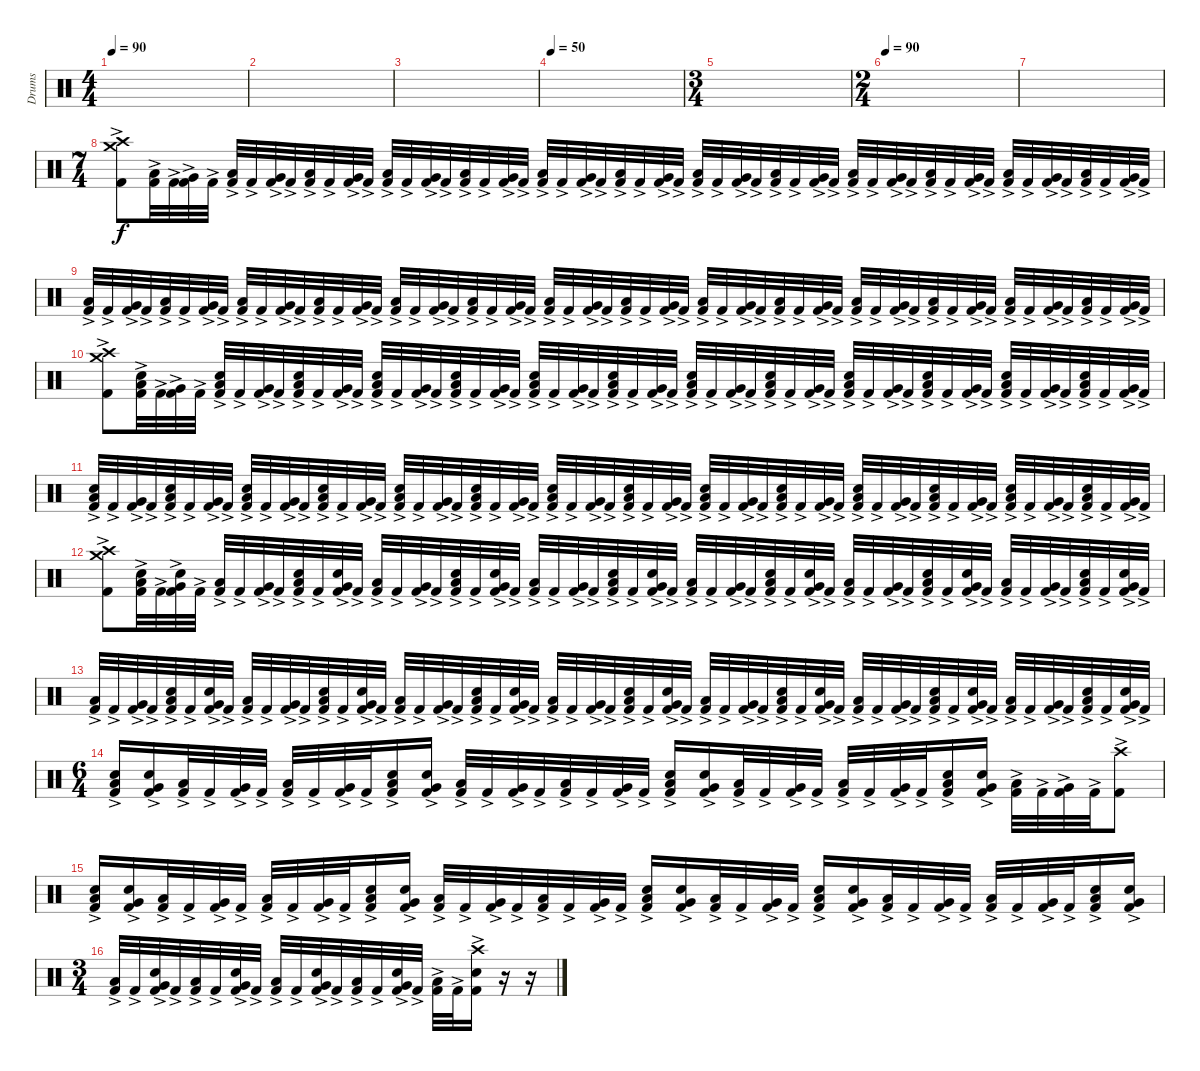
\track ("Drums" "Drums") {instrument percussion}
\staff {score}
\articulation defaults
\ts (4 4)
\tempo 90
\clef neutral
\ks c
|
|
|
\tempo 50
|
\ts (3 4)
|
\ts (2 4)
\tempo 90
|
|
\ts (7 4)
("Crash high (hit)"{ac} "Crash medium (hit)"{ac} "Kick (hit) 2"{ac}).8 ("Low Tom (hit)"{ac} "Kick (hit) 2"{ac}).32 "Kick (hit) 2"{ac}.32 ("Very Low Tom (hit)"{ac} "Kick (hit) 2"{ac}).32 "Kick (hit) 2"{ac}.32 ("Low Tom (hit)"{ac} "Kick (hit) 2"{ac}).32 "Kick (hit) 2"{ac}.32 ("Very Low Tom (hit)"{ac} "Kick (hit) 2"{ac}).32 "Kick (hit) 2"{ac}.32 ("Low Tom (hit)"{ac} "Kick (hit) 2"{ac}).32 "Kick (hit) 2"{ac}.32 ("Very Low Tom (hit)"{ac} "Kick (hit) 2"{ac}).32 "Kick (hit) 2"{ac}.32 ("Low Tom (hit)"{ac} "Kick (hit) 2"{ac}).32 "Kick (hit) 2"{ac}.32 ("Very Low Tom (hit)"{ac} "Kick (hit) 2"{ac}).32 "Kick (hit) 2"{ac}.32 ("Low Tom (hit)"{ac} "Kick (hit) 2"{ac}).32 "Kick (hit) 2"{ac}.32 ("Very Low Tom (hit)"{ac} "Kick (hit) 2"{ac}).32 "Kick (hit) 2"{ac}.32 ("Low Tom (hit)"{ac} "Kick (hit) 2"{ac}).32 "Kick (hit) 2"{ac}.32 ("Very Low Tom (hit)"{ac} "Kick (hit) 2"{ac}).32 "Kick (hit) 2"{ac}.32 ("Low Tom (hit)"{ac} "Kick (hit) 2"{ac}).32 "Kick (hit) 2"{ac}.32 ("Very Low Tom (hit)"{ac} "Kick (hit) 2"{ac}).32 "Kick (hit) 2"{ac}.32 ("Low Tom (hit)"{ac} "Kick (hit) 2"{ac}).32 "Kick (hit) 2"{ac}.32 ("Very Low Tom (hit)"{ac} "Kick (hit) 2"{ac}).32 "Kick (hit) 2"{ac}.32 ("Low Tom (hit)"{ac} "Kick (hit) 2"{ac}).32 "Kick (hit) 2"{ac}.32 ("Very Low Tom (hit)"{ac} "Kick (hit) 2"{ac}).32 "Kick (hit) 2"{ac}.32 ("Low Tom (hit)"{ac} "Kick (hit) 2"{ac}).32 "Kick (hit) 2"{ac}.32 ("Very Low Tom (hit)"{ac} "Kick (hit) 2"{ac}).32 "Kick (hit) 2"{ac}.32 ("Low Tom (hit)"{ac} "Kick (hit) 2"{ac}).32 "Kick (hit) 2"{ac}.32 ("Very Low Tom (hit)"{ac} "Kick (hit) 2"{ac}).32 "Kick (hit) 2"{ac}.32 ("Low Tom (hit)"{ac} "Kick (hit) 2"{ac}).32 "Kick (hit) 2"{ac}.32 ("Very Low Tom (hit)"{ac} "Kick (hit) 2"{ac}).32 "Kick (hit) 2"{ac}.32 ("Low Tom (hit)"{ac} "Kick (hit) 2"{ac}).32 "Kick (hit) 2"{ac}.32 ("Very Low Tom (hit)"{ac} "Kick (hit) 2"{ac}).32 "Kick (hit) 2"{ac}.32 |
("Low Tom (hit)"{ac} "Kick (hit) 2"{ac}).32 "Kick (hit) 2"{ac}.32 ("Very Low Tom (hit)"{ac} "Kick (hit) 2"{ac}).32 "Kick (hit) 2"{ac}.32 ("Low Tom (hit)"{ac} "Kick (hit) 2"{ac}).32 "Kick (hit) 2"{ac}.32 ("Very Low Tom (hit)"{ac} "Kick (hit) 2"{ac}).32 "Kick (hit) 2"{ac}.32 ("Low Tom (hit)"{ac} "Kick (hit) 2"{ac}).32 "Kick (hit) 2"{ac}.32 ("Very Low Tom (hit)"{ac} "Kick (hit) 2"{ac}).32 "Kick (hit) 2"{ac}.32 ("Low Tom (hit)"{ac} "Kick (hit) 2"{ac}).32 "Kick (hit) 2"{ac}.32 ("Very Low Tom (hit)"{ac} "Kick (hit) 2"{ac}).32 "Kick (hit) 2"{ac}.32 ("Low Tom (hit)"{ac} "Kick (hit) 2"{ac}).32 "Kick (hit) 2"{ac}.32 ("Very Low Tom (hit)"{ac} "Kick (hit) 2"{ac}).32 "Kick (hit) 2"{ac}.32 ("Low Tom (hit)"{ac} "Kick (hit) 2"{ac}).32 "Kick (hit) 2"{ac}.32 ("Very Low Tom (hit)"{ac} "Kick (hit) 2"{ac}).32 "Kick (hit) 2"{ac}.32 ("Low Tom (hit)"{ac} "Kick (hit) 2"{ac}).32 "Kick (hit) 2"{ac}.32 ("Very Low Tom (hit)"{ac} "Kick (hit) 2"{ac}).32 "Kick (hit) 2"{ac}.32 ("Low Tom (hit)"{ac} "Kick (hit) 2"{ac}).32 "Kick (hit) 2"{ac}.32 ("Very Low Tom (hit)"{ac} "Kick (hit) 2"{ac}).32 "Kick (hit) 2"{ac}.32 ("Low Tom (hit)"{ac} "Kick (hit) 2"{ac}).32 "Kick (hit) 2"{ac}.32 ("Very Low Tom (hit)"{ac} "Kick (hit) 2"{ac}).32 "Kick (hit) 2"{ac}.32 ("Low Tom (hit)"{ac} "Kick (hit) 2"{ac}).32 "Kick (hit) 2"{ac}.32 ("Very Low Tom (hit)"{ac} "Kick (hit) 2"{ac}).32 "Kick (hit) 2"{ac}.32 ("Low Tom (hit)"{ac} "Kick (hit) 2"{ac}).32 "Kick (hit) 2"{ac}.32 ("Very Low Tom (hit)"{ac} "Kick (hit) 2"{ac}).32 "Kick (hit) 2"{ac}.32 ("Low Tom (hit)"{ac} "Kick (hit) 2"{ac}).32 "Kick (hit) 2"{ac}.32 ("Very Low Tom (hit)"{ac} "Kick (hit) 2"{ac}).32 "Kick (hit) 2"{ac}.32 ("Low Tom (hit)"{ac} "Kick (hit) 2"{ac}).32 "Kick (hit) 2"{ac}.32 ("Very Low Tom (hit)"{ac} "Kick (hit) 2"{ac}).32 "Kick (hit) 2"{ac}.32 ("Low Tom (hit)"{ac} "Kick (hit) 2"{ac}).32 "Kick (hit) 2"{ac}.32 ("Very Low Tom (hit)"{ac} "Kick (hit) 2"{ac}).32 "Kick (hit) 2"{ac}.32 |
("Crash high (hit)"{ac} "Crash medium (hit)"{ac} "Kick (hit) 2"{ac}).8 ("Low Tom (hit)"{ac} "Snare (hit) 2"{ac} "Kick (hit) 2"{ac}).32 "Kick (hit) 2"{ac}.32 ("Very Low Tom (hit)"{ac} "Kick (hit) 2"{ac}).32 "Kick (hit) 2"{ac}.32 ("Low Tom (hit)"{ac} "Snare (hit) 2"{ac} "Kick (hit) 2"{ac}).32 "Kick (hit) 2"{ac}.32 ("Very Low Tom (hit)"{ac} "Kick (hit) 2"{ac}).32 "Kick (hit) 2"{ac}.32 ("Low Tom (hit)"{ac} "Snare (hit) 2"{ac} "Kick (hit) 2"{ac}).32 "Kick (hit) 2"{ac}.32 ("Very Low Tom (hit)"{ac} "Kick (hit) 2"{ac}).32 "Kick (hit) 2"{ac}.32 ("Low Tom (hit)"{ac} "Snare (hit) 2"{ac} "Kick (hit) 2"{ac}).32 "Kick (hit) 2"{ac}.32 ("Very Low Tom (hit)"{ac} "Kick (hit) 2"{ac}).32 "Kick (hit) 2"{ac}.32 ("Low Tom (hit)"{ac} "Snare (hit) 2"{ac} "Kick (hit) 2"{ac}).32 "Kick (hit) 2"{ac}.32 ("Very Low Tom (hit)"{ac} "Kick (hit) 2"{ac}).32 "Kick (hit) 2"{ac}.32 ("Low Tom (hit)"{ac} "Snare (hit) 2"{ac} "Kick (hit) 2"{ac}).32 "Kick (hit) 2"{ac}.32 ("Very Low Tom (hit)"{ac} "Kick (hit) 2"{ac}).32 "Kick (hit) 2"{ac}.32 ("Low Tom (hit)"{ac} "Snare (hit) 2"{ac} "Kick (hit) 2"{ac}).32 "Kick (hit) 2"{ac}.32 ("Very Low Tom (hit)"{ac} "Kick (hit) 2"{ac}).32 "Kick (hit) 2"{ac}.32 ("Low Tom (hit)"{ac} "Snare (hit) 2"{ac} "Kick (hit) 2"{ac}).32 "Kick (hit) 2"{ac}.32 ("Very Low Tom (hit)"{ac} "Kick (hit) 2"{ac}).32 "Kick (hit) 2"{ac}.32 ("Low Tom (hit)"{ac} "Snare (hit) 2"{ac} "Kick (hit) 2"{ac}).32 "Kick (hit) 2"{ac}.32 ("Very Low Tom (hit)"{ac} "Kick (hit) 2"{ac}).32 "Kick (hit) 2"{ac}.32 ("Low Tom (hit)"{ac} "Snare (hit) 2"{ac} "Kick (hit) 2"{ac}).32 "Kick (hit) 2"{ac}.32 ("Very Low Tom (hit)"{ac} "Kick (hit) 2"{ac}).32 "Kick (hit) 2"{ac}.32 ("Low Tom (hit)"{ac} "Snare (hit) 2"{ac} "Kick (hit) 2"{ac}).32 "Kick (hit) 2"{ac}.32 ("Very Low Tom (hit)"{ac} "Kick (hit) 2"{ac}).32 "Kick (hit) 2"{ac}.32 ("Low Tom (hit)"{ac} "Snare (hit) 2"{ac} "Kick (hit) 2"{ac}).32 "Kick (hit) 2"{ac}.32 ("Very Low Tom (hit)"{ac} "Kick (hit) 2"{ac}).32 "Kick (hit) 2"{ac}.32 ("Low Tom (hit)"{ac} "Snare (hit) 2"{ac} "Kick (hit) 2"{ac}).32 "Kick (hit) 2"{ac}.32 ("Very Low Tom (hit)"{ac} "Kick (hit) 2"{ac}).32 "Kick (hit) 2"{ac}.32 |
("Low Tom (hit)"{ac} "Snare (hit) 2"{ac} "Kick (hit) 2"{ac}).32 "Kick (hit) 2"{ac}.32 ("Very Low Tom (hit)"{ac} "Kick (hit) 2"{ac}).32 "Kick (hit) 2"{ac}.32 ("Low Tom (hit)"{ac} "Snare (hit) 2"{ac} "Kick (hit) 2"{ac}).32 "Kick (hit) 2"{ac}.32 ("Very Low Tom (hit)"{ac} "Kick (hit) 2"{ac}).32 "Kick (hit) 2"{ac}.32 ("Low Tom (hit)"{ac} "Snare (hit) 2"{ac} "Kick (hit) 2"{ac}).32 "Kick (hit) 2"{ac}.32 ("Very Low Tom (hit)"{ac} "Kick (hit) 2"{ac}).32 "Kick (hit) 2"{ac}.32 ("Low Tom (hit)"{ac} "Snare (hit) 2"{ac} "Kick (hit) 2"{ac}).32 "Kick (hit) 2"{ac}.32 ("Very Low Tom (hit)"{ac} "Kick (hit) 2"{ac}).32 "Kick (hit) 2"{ac}.32 ("Low Tom (hit)"{ac} "Snare (hit) 2"{ac} "Kick (hit) 2"{ac}).32 "Kick (hit) 2"{ac}.32 ("Very Low Tom (hit)"{ac} "Kick (hit) 2"{ac}).32 "Kick (hit) 2"{ac}.32 ("Low Tom (hit)"{ac} "Snare (hit) 2"{ac} "Kick (hit) 2"{ac}).32 "Kick (hit) 2"{ac}.32 ("Very Low Tom (hit)"{ac} "Kick (hit) 2"{ac}).32 "Kick (hit) 2"{ac}.32 ("Low Tom (hit)"{ac} "Snare (hit) 2"{ac} "Kick (hit) 2"{ac}).32 "Kick (hit) 2"{ac}.32 ("Very Low Tom (hit)"{ac} "Kick (hit) 2"{ac}).32 "Kick (hit) 2"{ac}.32 ("Low Tom (hit)"{ac} "Snare (hit) 2"{ac} "Kick (hit) 2"{ac}).32 "Kick (hit) 2"{ac}.32 ("Very Low Tom (hit)"{ac} "Kick (hit) 2"{ac}).32 "Kick (hit) 2"{ac}.32 ("Low Tom (hit)"{ac} "Snare (hit) 2"{ac} "Kick (hit) 2"{ac}).32 "Kick (hit) 2"{ac}.32 ("Very Low Tom (hit)"{ac} "Kick (hit) 2"{ac}).32 "Kick (hit) 2"{ac}.32 ("Low Tom (hit)"{ac} "Snare (hit) 2"{ac} "Kick (hit) 2"{ac}).32 "Kick (hit) 2"{ac}.32 ("Very Low Tom (hit)"{ac} "Kick (hit) 2"{ac}).32 "Kick (hit) 2"{ac}.32 ("Low Tom (hit)"{ac} "Snare (hit) 2"{ac} "Kick (hit) 2"{ac}).32 "Kick (hit) 2"{ac}.32 ("Very Low Tom (hit)"{ac} "Kick (hit) 2"{ac}).32 "Kick (hit) 2"{ac}.32 ("Low Tom (hit)"{ac} "Snare (hit) 2"{ac} "Kick (hit) 2"{ac}).32 "Kick (hit) 2"{ac}.32 ("Very Low Tom (hit)"{ac} "Kick (hit) 2"{ac}).32 "Kick (hit) 2"{ac}.32 ("Low Tom (hit)"{ac} "Snare (hit) 2"{ac} "Kick (hit) 2"{ac}).32 "Kick (hit) 2"{ac}.32 ("Very Low Tom (hit)"{ac} "Kick (hit) 2"{ac}).32 "Kick (hit) 2"{ac}.32 ("Low Tom (hit)"{ac} "Snare (hit) 2"{ac} "Kick (hit) 2"{ac}).32 "Kick (hit) 2"{ac}.32 ("Very Low Tom (hit)"{ac} "Kick (hit) 2"{ac}).32 "Kick (hit) 2"{ac}.32 |
("Crash high (hit)"{ac} "Crash medium (hit)"{ac} "Kick (hit) 2"{ac}).8 ("Low Tom (hit)"{ac} "Snare (hit) 2"{ac} "Kick (hit) 2"{ac}).32 "Kick (hit) 2"{ac}.32 ("Very Low Tom (hit)"{ac} "Snare (hit) 2"{ac} "Kick (hit) 2"{ac}).32 "Kick (hit) 2"{ac}.32 ("Low Tom (hit)"{ac} "Kick (hit) 2"{ac}).32 "Kick (hit) 2"{ac}.32 ("Very Low Tom (hit)"{ac} "Kick (hit) 2"{ac}).32 "Kick (hit) 2"{ac}.32 ("Low Tom (hit)"{ac} "Snare (hit) 2"{ac} "Kick (hit) 2"{ac}).32 "Kick (hit) 2"{ac}.32 ("Very Low Tom (hit)"{ac} "Snare (hit) 2"{ac} "Kick (hit) 2"{ac}).32 "Kick (hit) 2"{ac}.32 ("Low Tom (hit)"{ac} "Kick (hit) 2"{ac}).32 "Kick (hit) 2"{ac}.32 ("Very Low Tom (hit)"{ac} "Kick (hit) 2"{ac}).32 "Kick (hit) 2"{ac}.32 ("Low Tom (hit)"{ac} "Snare (hit) 2"{ac} "Kick (hit) 2"{ac}).32 "Kick (hit) 2"{ac}.32 ("Very Low Tom (hit)"{ac} "Snare (hit) 2"{ac} "Kick (hit) 2"{ac}).32 "Kick (hit) 2"{ac}.32 ("Low Tom (hit)"{ac} "Kick (hit) 2"{ac}).32 "Kick (hit) 2"{ac}.32 ("Very Low Tom (hit)"{ac} "Kick (hit) 2"{ac}).32 "Kick (hit) 2"{ac}.32 ("Low Tom (hit)"{ac} "Snare (hit) 2"{ac} "Kick (hit) 2"{ac}).32 "Kick (hit) 2"{ac}.32 ("Very Low Tom (hit)"{ac} "Snare (hit) 2"{ac} "Kick (hit) 2"{ac}).32 "Kick (hit) 2"{ac}.32 ("Low Tom (hit)"{ac} "Kick (hit) 2"{ac}).32 "Kick (hit) 2"{ac}.32 ("Very Low Tom (hit)"{ac} "Kick (hit) 2"{ac}).32 "Kick (hit) 2"{ac}.32 ("Low Tom (hit)"{ac} "Snare (hit) 2"{ac} "Kick (hit) 2"{ac}).32 "Kick (hit) 2"{ac}.32 ("Very Low Tom (hit)"{ac} "Snare (hit) 2"{ac} "Kick (hit) 2"{ac}).32 "Kick (hit) 2"{ac}.32 ("Low Tom (hit)"{ac} "Kick (hit) 2"{ac}).32 "Kick (hit) 2"{ac}.32 ("Very Low Tom (hit)"{ac} "Kick (hit) 2"{ac}).32 "Kick (hit) 2"{ac}.32 ("Low Tom (hit)"{ac} "Snare (hit) 2"{ac} "Kick (hit) 2"{ac}).32 "Kick (hit) 2"{ac}.32 ("Very Low Tom (hit)"{ac} "Snare (hit) 2"{ac} "Kick (hit) 2"{ac}).32 "Kick (hit) 2"{ac}.32 ("Low Tom (hit)"{ac} "Kick (hit) 2"{ac}).32 "Kick (hit) 2"{ac}.32 ("Very Low Tom (hit)"{ac} "Kick (hit) 2"{ac}).32 "Kick (hit) 2"{ac}.32 ("Low Tom (hit)"{ac} "Snare (hit) 2"{ac} "Kick (hit) 2"{ac}).32 "Kick (hit) 2"{ac}.32 ("Very Low Tom (hit)"{ac} "Snare (hit) 2"{ac} "Kick (hit) 2"{ac}).32 "Kick (hit) 2"{ac}.32 |
("Low Tom (hit)"{ac} "Kick (hit) 2"{ac}).32 "Kick (hit) 2"{ac}.32 ("Very Low Tom (hit)"{ac} "Kick (hit) 2"{ac}).32 "Kick (hit) 2"{ac}.32 ("Low Tom (hit)"{ac} "Snare (hit) 2"{ac} "Kick (hit) 2"{ac}).32 "Kick (hit) 2"{ac}.32 ("Very Low Tom (hit)"{ac} "Snare (hit) 2"{ac} "Kick (hit) 2"{ac}).32 "Kick (hit) 2"{ac}.32 ("Low Tom (hit)"{ac} "Kick (hit) 2"{ac}).32 "Kick (hit) 2"{ac}.32 ("Very Low Tom (hit)"{ac} "Kick (hit) 2"{ac}).32 "Kick (hit) 2"{ac}.32 ("Low Tom (hit)"{ac} "Snare (hit) 2"{ac} "Kick (hit) 2"{ac}).32 "Kick (hit) 2"{ac}.32 ("Very Low Tom (hit)"{ac} "Snare (hit) 2"{ac} "Kick (hit) 2"{ac}).32 "Kick (hit) 2"{ac}.32 ("Low Tom (hit)"{ac} "Kick (hit) 2"{ac}).32 "Kick (hit) 2"{ac}.32 ("Very Low Tom (hit)"{ac} "Kick (hit) 2"{ac}).32 "Kick (hit) 2"{ac}.32 ("Low Tom (hit)"{ac} "Snare (hit) 2"{ac} "Kick (hit) 2"{ac}).32 "Kick (hit) 2"{ac}.32 ("Very Low Tom (hit)"{ac} "Snare (hit) 2"{ac} "Kick (hit) 2"{ac}).32 "Kick (hit) 2"{ac}.32 ("Low Tom (hit)"{ac} "Kick (hit) 2"{ac}).32 "Kick (hit) 2"{ac}.32 ("Very Low Tom (hit)"{ac} "Kick (hit) 2"{ac}).32 "Kick (hit) 2"{ac}.32 ("Low Tom (hit)"{ac} "Snare (hit) 2"{ac} "Kick (hit) 2"{ac}).32 "Kick (hit) 2"{ac}.32 ("Very Low Tom (hit)"{ac} "Snare (hit) 2"{ac} "Kick (hit) 2"{ac}).32 "Kick (hit) 2"{ac}.32 ("Low Tom (hit)"{ac} "Kick (hit) 2"{ac}).32 "Kick (hit) 2"{ac}.32 ("Very Low Tom (hit)"{ac} "Kick (hit) 2"{ac}).32 "Kick (hit) 2"{ac}.32 ("Low Tom (hit)"{ac} "Snare (hit) 2"{ac} "Kick (hit) 2"{ac}).32 "Kick (hit) 2"{ac}.32 ("Very Low Tom (hit)"{ac} "Snare (hit) 2"{ac} "Kick (hit) 2"{ac}).32 "Kick (hit) 2"{ac}.32 ("Low Tom (hit)"{ac} "Kick (hit) 2"{ac}).32 "Kick (hit) 2"{ac}.32 ("Very Low Tom (hit)"{ac} "Kick (hit) 2"{ac}).32 "Kick (hit) 2"{ac}.32 ("Low Tom (hit)"{ac} "Snare (hit) 2"{ac} "Kick (hit) 2"{ac}).32 "Kick (hit) 2"{ac}.32 ("Very Low Tom (hit)"{ac} "Snare (hit) 2"{ac} "Kick (hit) 2"{ac}).32 "Kick (hit) 2"{ac}.32 ("Low Tom (hit)"{ac} "Kick (hit) 2"{ac}).32 "Kick (hit) 2"{ac}.32 ("Very Low Tom (hit)"{ac} "Kick (hit) 2"{ac}).32 "Kick (hit) 2"{ac}.32 ("Low Tom (hit)"{ac} "Snare (hit) 2"{ac} "Kick (hit) 2"{ac}).32 "Kick (hit) 2"{ac}.32 ("Very Low Tom (hit)"{ac} "Snare (hit) 2"{ac} "Kick (hit) 2"{ac}).32 "Kick (hit) 2"{ac}.32 |
\ts (6 4)
("Low Tom (hit)"{ac} "Snare (hit) 2"{ac} "Kick (hit) 2"{ac}).16 ("Very Low Tom (hit)"{ac} "Snare (hit) 2"{ac} "Kick (hit) 2"{ac}).16 ("Low Tom (hit)"{ac} "Kick (hit) 2"{ac}).32 "Kick (hit) 2"{ac}.32 ("Very Low Tom (hit)"{ac} "Kick (hit) 2"{ac}).32 "Kick (hit) 2"{ac}.32 ("Low Tom (hit)"{ac} "Kick (hit) 2"{ac}).32 "Kick (hit) 2"{ac}.32 ("Very Low Tom (hit)"{ac} "Kick (hit) 2"{ac}).32 "Kick (hit) 2"{ac}.32 ("Low Tom (hit)"{ac} "Snare (hit) 2"{ac} "Kick (hit) 2"{ac}).16 ("Very Low Tom (hit)"{ac} "Snare (hit) 2"{ac} "Kick (hit) 2"{ac}).16 ("Low Tom (hit)"{ac} "Kick (hit) 2"{ac}).32 "Kick (hit) 2"{ac}.32 ("Very Low Tom (hit)"{ac} "Kick (hit) 2"{ac}).32 "Kick (hit) 2"{ac}.32 ("Low Tom (hit)"{ac} "Kick (hit) 2"{ac}).32 "Kick (hit) 2"{ac}.32 ("Very Low Tom (hit)"{ac} "Kick (hit) 2"{ac}).32 "Kick (hit) 2"{ac}.32 ("Low Tom (hit)"{ac} "Snare (hit) 2"{ac} "Kick (hit) 2"{ac}).16 ("Very Low Tom (hit)"{ac} "Snare (hit) 2"{ac} "Kick (hit) 2"{ac}).16 ("Low Tom (hit)"{ac} "Kick (hit) 2"{ac}).32 "Kick (hit) 2"{ac}.32 ("Very Low Tom (hit)"{ac} "Kick (hit) 2"{ac}).32 "Kick (hit) 2"{ac}.32 ("Low Tom (hit)"{ac} "Kick (hit) 2"{ac}).32 "Kick (hit) 2"{ac}.32 ("Very Low Tom (hit)"{ac} "Kick (hit) 2"{ac}).32 "Kick (hit) 2"{ac}.32 ("Low Tom (hit)"{ac} "Snare (hit) 2"{ac} "Kick (hit) 2"{ac}).16 ("Very Low Tom (hit)"{ac} "Snare (hit) 2"{ac} "Kick (hit) 2"{ac}).16 ("Low Tom (hit)"{ac} "Kick (hit) 2"{ac}).32 "Kick (hit) 2"{ac}.32 ("Very Low Tom (hit)"{ac} "Kick (hit) 2"{ac}).32 "Kick (hit) 2"{ac}.32 ("Crash high (hit)"{ac} "Kick (hit) 2"{ac}).8 |
("Low Tom (hit)"{ac} "Snare (hit) 2"{ac} "Kick (hit) 2"{ac}).16 ("Very Low Tom (hit)"{ac} "Snare (hit) 2"{ac} "Kick (hit) 2"{ac}).16 ("Low Tom (hit)"{ac} "Kick (hit) 2"{ac}).32 "Kick (hit) 2"{ac}.32 ("Very Low Tom (hit)"{ac} "Kick (hit) 2"{ac}).32 "Kick (hit) 2"{ac}.32 ("Low Tom (hit)"{ac} "Kick (hit) 2"{ac}).32 "Kick (hit) 2"{ac}.32 ("Very Low Tom (hit)"{ac} "Kick (hit) 2"{ac}).32 "Kick (hit) 2"{ac}.32 ("Low Tom (hit)"{ac} "Snare (hit) 2"{ac} "Kick (hit) 2"{ac}).16 ("Very Low Tom (hit)"{ac} "Snare (hit) 2"{ac} "Kick (hit) 2"{ac}).16 ("Low Tom (hit)"{ac} "Kick (hit) 2"{ac}).32 "Kick (hit) 2"{ac}.32 ("Very Low Tom (hit)"{ac} "Kick (hit) 2"{ac}).32 "Kick (hit) 2"{ac}.32 ("Low Tom (hit)"{ac} "Kick (hit) 2"{ac}).32 "Kick (hit) 2"{ac}.32 ("Very Low Tom (hit)"{ac} "Kick (hit) 2"{ac}).32 "Kick (hit) 2"{ac}.32 ("Low Tom (hit)"{ac} "Snare (hit) 2"{ac} "Kick (hit) 2"{ac}).16 ("Very Low Tom (hit)"{ac} "Snare (hit) 2"{ac} "Kick (hit) 2"{ac}).16 ("Low Tom (hit)"{ac} "Kick (hit) 2"{ac}).32 "Kick (hit) 2"{ac}.32 ("Very Low Tom (hit)"{ac} "Kick (hit) 2"{ac}).32 "Kick (hit) 2"{ac}.32 ("Low Tom (hit)"{ac} "Snare (hit) 2"{ac} "Kick (hit) 2"{ac}).16 ("Very Low Tom (hit)"{ac} "Snare (hit) 2"{ac} "Kick (hit) 2"{ac}).16 ("Low Tom (hit)"{ac} "Kick (hit) 2"{ac}).32 "Kick (hit) 2"{ac}.32 ("Very Low Tom (hit)"{ac} "Kick (hit) 2"{ac}).32 "Kick (hit) 2"{ac}.32 ("Low Tom (hit)"{ac} "Kick (hit) 2"{ac}).32 "Kick (hit) 2"{ac}.32 ("Very Low Tom (hit)"{ac} "Kick (hit) 2"{ac}).32 "Kick (hit) 2"{ac}.32 ("Low Tom (hit)"{ac} "Snare (hit) 2"{ac} "Kick (hit) 2"{ac}).16 ("Very Low Tom (hit)"{ac} "Snare (hit) 2"{ac} "Kick (hit) 2"{ac}).16 |
\ts (3 4)
("Low Tom (hit)"{ac} "Kick (hit) 2"{ac}).32 "Kick (hit) 2"{ac}.32 ("Very Low Tom (hit)"{ac} "Snare (hit) 2"{ac} "Kick (hit) 2"{ac}).32 "Kick (hit) 2"{ac}.32 ("Low Tom (hit)"{ac} "Kick (hit) 2"{ac}).32 "Kick (hit) 2"{ac}.32 ("Very Low Tom (hit)"{ac} "Snare (hit) 2"{ac} "Kick (hit) 2"{ac}).32 "Kick (hit) 2"{ac}.32 ("Low Tom (hit)"{ac} "Kick (hit) 2"{ac}).32 "Kick (hit) 2"{ac}.32 ("Very Low Tom (hit)"{ac} "Snare (hit) 2"{ac} "Kick (hit) 2"{ac}).32 "Kick (hit) 2"{ac}.32 ("Low Tom (hit)"{ac} "Kick (hit) 2"{ac}).32 "Kick (hit) 2"{ac}.32 ("Very Low Tom (hit)"{ac} "Snare (hit) 2"{ac} "Kick (hit) 2"{ac}).32 "Kick (hit) 2"{ac}.32 ("Low Tom (hit)"{ac} "Kick (hit) 2"{ac}).32 "Kick (hit) 2"{ac}.32 ("Crash high (hit)"{ac} "Snare (hit) 2"{ac} "Kick (hit) 2"{ac}).16 r.16 r.16
